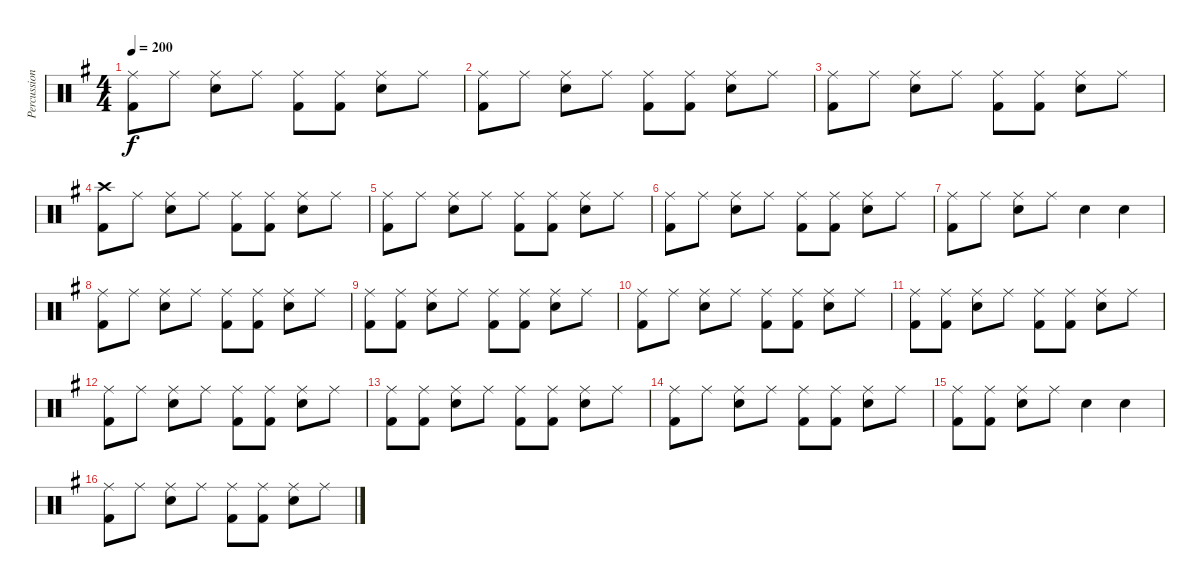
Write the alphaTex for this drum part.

\track ("Percussion" "Percussion") {instrument percussion}
\staff {score}
\articulation defaults
\ts (4 4)
\tempo 200
\clef neutral
\ks eminor
("Ride (middle)" "Kick (hit) 2").8{dy f} "Ride (middle)".8 ("Ride (middle)" "Snare (hit) 2").8 "Ride (middle)".8 ("Ride (middle)" "Kick (hit) 2").8 ("Ride (middle)" "Kick (hit) 2").8 ("Ride (middle)" "Snare (hit) 2").8 "Ride (middle)".8 |
("Ride (middle)" "Kick (hit) 2").8 "Ride (middle)".8 ("Ride (middle)" "Snare (hit) 2").8 "Ride (middle)".8 ("Ride (middle)" "Kick (hit) 2").8 ("Ride (middle)" "Kick (hit) 2").8 ("Ride (middle)" "Snare (hit) 2").8 "Ride (middle)".8 |
("Ride (middle)" "Kick (hit) 2").8 "Ride (middle)".8 ("Ride (middle)" "Snare (hit) 2").8 "Ride (middle)".8 ("Ride (middle)" "Kick (hit) 2").8 ("Ride (middle)" "Kick (hit) 2").8 ("Ride (middle)" "Snare (hit) 2").8 "Ride (middle)".8 |
("Crash high (hit)" "Kick (hit) 2").8 "Ride (middle)".8 ("Ride (middle)" "Snare (hit) 2").8 "Ride (middle)".8 ("Ride (middle)" "Kick (hit) 2").8 ("Ride (middle)" "Kick (hit) 2").8 ("Ride (middle)" "Snare (hit) 2").8 "Ride (middle)".8 |
("Ride (middle)" "Kick (hit) 2").8 "Ride (middle)".8 ("Ride (middle)" "Snare (hit) 2").8 "Ride (middle)".8 ("Ride (middle)" "Kick (hit) 2").8 ("Ride (middle)" "Kick (hit) 2").8 ("Ride (middle)" "Snare (hit) 2").8 "Ride (middle)".8 |
("Ride (middle)" "Kick (hit) 2").8 "Ride (middle)".8 ("Ride (middle)" "Snare (hit) 2").8 "Ride (middle)".8 ("Ride (middle)" "Kick (hit) 2").8 ("Ride (middle)" "Kick (hit) 2").8 ("Ride (middle)" "Snare (hit) 2").8 "Ride (middle)".8 |
("Ride (middle)" "Kick (hit) 2").8 "Ride (middle)".8 ("Ride (middle)" "Snare (hit) 2").8 "Ride (middle)".8 "Snare (hit) 2".4 "Snare (hit) 2".4 |
("Ride (middle)" "Kick (hit) 2").8 "Ride (middle)".8 ("Ride (middle)" "Snare (hit) 2").8 "Ride (middle)".8 ("Ride (middle)" "Kick (hit) 2").8 ("Ride (middle)" "Kick (hit) 2").8 ("Ride (middle)" "Snare (hit) 2").8 "Ride (middle)".8 |
("Ride (middle)" "Kick (hit) 2").8 ("Ride (middle)" "Kick (hit) 2").8 ("Ride (middle)" "Snare (hit) 2").8 "Ride (middle)".8 ("Ride (middle)" "Kick (hit) 2").8 ("Ride (middle)" "Kick (hit) 2").8 ("Ride (middle)" "Snare (hit) 2").8 "Ride (middle)".8 |
("Ride (middle)" "Kick (hit) 2").8 "Ride (middle)".8 ("Ride (middle)" "Snare (hit) 2").8 "Ride (middle)".8 ("Ride (middle)" "Kick (hit) 2").8 ("Ride (middle)" "Kick (hit) 2").8 ("Ride (middle)" "Snare (hit) 2").8 "Ride (middle)".8 |
("Ride (middle)" "Kick (hit) 2").8 ("Ride (middle)" "Kick (hit) 2").8 ("Ride (middle)" "Snare (hit) 2").8 "Ride (middle)".8 ("Ride (middle)" "Kick (hit) 2").8 ("Ride (middle)" "Kick (hit) 2").8 ("Ride (middle)" "Snare (hit) 2").8 "Ride (middle)".8 |
("Ride (middle)" "Kick (hit) 2").8 "Ride (middle)".8 ("Ride (middle)" "Snare (hit) 2").8 "Ride (middle)".8 ("Ride (middle)" "Kick (hit) 2").8 ("Ride (middle)" "Kick (hit) 2").8 ("Ride (middle)" "Snare (hit) 2").8 "Ride (middle)".8 |
("Ride (middle)" "Kick (hit) 2").8 ("Ride (middle)" "Kick (hit) 2").8 ("Ride (middle)" "Snare (hit) 2").8 "Ride (middle)".8 ("Ride (middle)" "Kick (hit) 2").8 ("Ride (middle)" "Kick (hit) 2").8 ("Ride (middle)" "Snare (hit) 2").8 "Ride (middle)".8 |
("Ride (middle)" "Kick (hit) 2").8 "Ride (middle)".8 ("Ride (middle)" "Snare (hit) 2").8 "Ride (middle)".8 ("Ride (middle)" "Kick (hit) 2").8 ("Ride (middle)" "Kick (hit) 2").8 ("Ride (middle)" "Snare (hit) 2").8 "Ride (middle)".8 |
("Ride (middle)" "Kick (hit) 2").8 ("Ride (middle)" "Kick (hit) 2").8 ("Ride (middle)" "Snare (hit) 2").8 "Ride (middle)".8 "Snare (hit) 2".4 "Snare (hit) 2".4 |
("Ride (middle)" "Kick (hit) 2").8 "Ride (middle)".8 ("Ride (middle)" "Snare (hit) 2").8 "Ride (middle)".8 ("Ride (middle)" "Kick (hit) 2").8 ("Ride (middle)" "Kick (hit) 2").8 ("Ride (middle)" "Snare (hit) 2").8 "Ride (middle)".8
